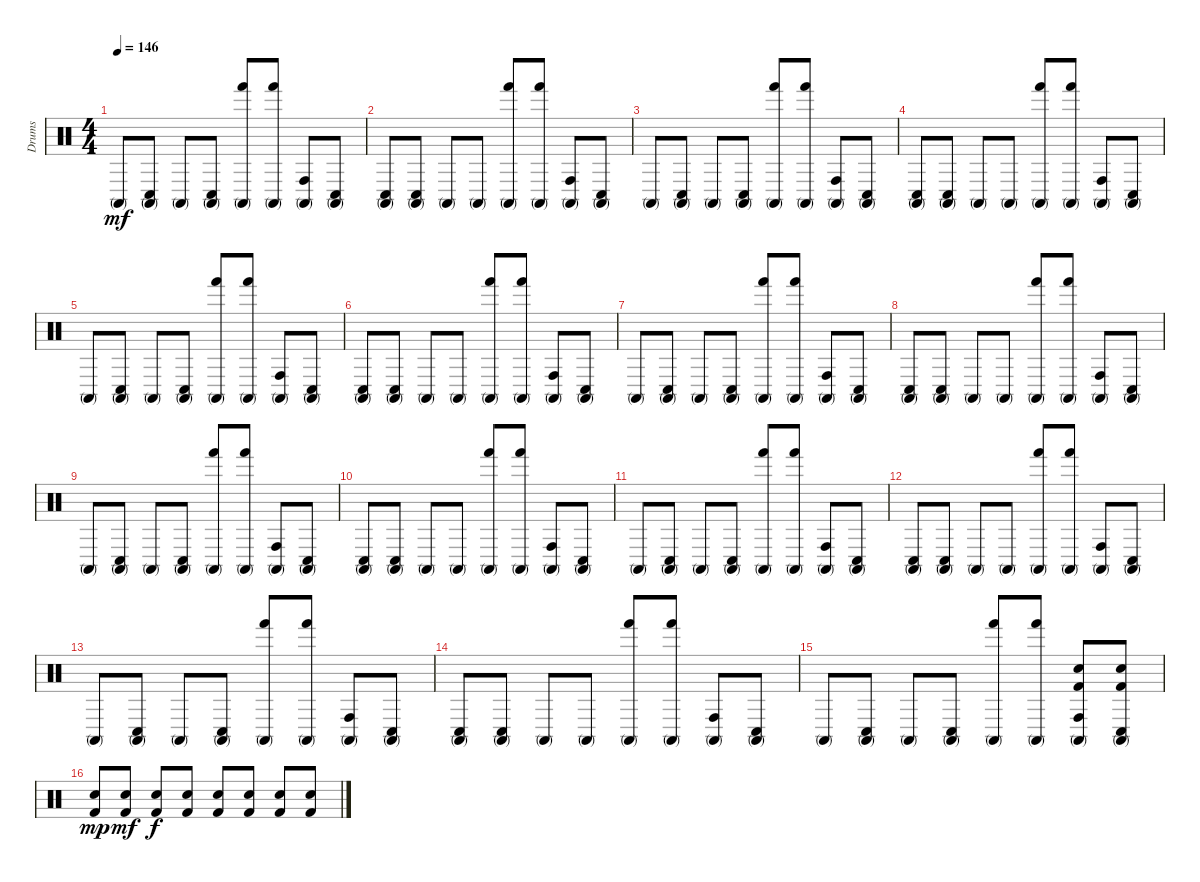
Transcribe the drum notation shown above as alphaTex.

\track ("Drums" "Drums") {instrument percussion}
\staff {score}
\articulation defaults
\ts (4 4)
\tempo 146
\clef neutral
\ks c "Conga high (mute)".8{dy mf}
("Conga low (hit)" "Conga high (mute)").8 "Conga high (mute)".8 ("Conga low (hit)" "Conga high (mute)").8 ("Hand (hit)" "Conga high (mute)").8 ("Hand (hit)" "Conga high (mute)").8 ("Conga high (hit)" "Conga high (mute)").8 ("Conga low (hit)" "Conga high (mute)").8 |
("Conga low (hit)" "Conga high (mute)").8 ("Conga low (hit)" "Conga high (mute)").8 "Conga high (mute)".8 "Conga high (mute)".8 ("Hand (hit)" "Conga high (mute)").8 ("Hand (hit)" "Conga high (mute)").8 ("Conga high (hit)" "Conga high (mute)").8 ("Conga low (hit)" "Conga high (mute)").8 |
"Conga high (mute)".8 ("Conga low (hit)" "Conga high (mute)").8 "Conga high (mute)".8 ("Conga low (hit)" "Conga high (mute)").8 ("Hand (hit)" "Conga high (mute)").8 ("Hand (hit)" "Conga high (mute)").8 ("Conga high (hit)" "Conga high (mute)").8 ("Conga low (hit)" "Conga high (mute)").8 |
("Conga low (hit)" "Conga high (mute)").8 ("Conga low (hit)" "Conga high (mute)").8 "Conga high (mute)".8 "Conga high (mute)".8 ("Hand (hit)" "Conga high (mute)").8 ("Hand (hit)" "Conga high (mute)").8 ("Conga high (hit)" "Conga high (mute)").8 ("Conga low (hit)" "Conga high (mute)").8 |
"Conga high (mute)".8 ("Conga low (hit)" "Conga high (mute)").8 "Conga high (mute)".8 ("Conga low (hit)" "Conga high (mute)").8 ("Hand (hit)" "Conga high (mute)").8 ("Hand (hit)" "Conga high (mute)").8 ("Conga high (hit)" "Conga high (mute)").8 ("Conga low (hit)" "Conga high (mute)").8 |
("Conga low (hit)" "Conga high (mute)").8 ("Conga low (hit)" "Conga high (mute)").8 "Conga high (mute)".8 "Conga high (mute)".8 ("Hand (hit)" "Conga high (mute)").8 ("Hand (hit)" "Conga high (mute)").8 ("Conga high (hit)" "Conga high (mute)").8 ("Conga low (hit)" "Conga high (mute)").8 |
"Conga high (mute)".8 ("Conga low (hit)" "Conga high (mute)").8 "Conga high (mute)".8 ("Conga low (hit)" "Conga high (mute)").8 ("Hand (hit)" "Conga high (mute)").8 ("Hand (hit)" "Conga high (mute)").8 ("Conga high (hit)" "Conga high (mute)").8 ("Conga low (hit)" "Conga high (mute)").8 |
("Conga low (hit)" "Conga high (mute)").8 ("Conga low (hit)" "Conga high (mute)").8 "Conga high (mute)".8 "Conga high (mute)".8 ("Hand (hit)" "Conga high (mute)").8 ("Hand (hit)" "Conga high (mute)").8 ("Conga high (hit)" "Conga high (mute)").8 ("Conga low (hit)" "Conga high (mute)").8 |
"Conga high (mute)".8 ("Conga low (hit)" "Conga high (mute)").8 "Conga high (mute)".8 ("Conga low (hit)" "Conga high (mute)").8 ("Hand (hit)" "Conga high (mute)").8 ("Hand (hit)" "Conga high (mute)").8 ("Conga high (hit)" "Conga high (mute)").8 ("Conga low (hit)" "Conga high (mute)").8 |
("Conga low (hit)" "Conga high (mute)").8 ("Conga low (hit)" "Conga high (mute)").8 "Conga high (mute)".8 "Conga high (mute)".8 ("Hand (hit)" "Conga high (mute)").8 ("Hand (hit)" "Conga high (mute)").8 ("Conga high (hit)" "Conga high (mute)").8 ("Conga low (hit)" "Conga high (mute)").8 |
"Conga high (mute)".8 ("Conga low (hit)" "Conga high (mute)").8 "Conga high (mute)".8 ("Conga low (hit)" "Conga high (mute)").8 ("Hand (hit)" "Conga high (mute)").8 ("Hand (hit)" "Conga high (mute)").8 ("Conga high (hit)" "Conga high (mute)").8 ("Conga low (hit)" "Conga high (mute)").8 |
("Conga low (hit)" "Conga high (mute)").8 ("Conga low (hit)" "Conga high (mute)").8 "Conga high (mute)".8 "Conga high (mute)".8 ("Hand (hit)" "Conga high (mute)").8 ("Hand (hit)" "Conga high (mute)").8 ("Conga high (hit)" "Conga high (mute)").8 ("Conga low (hit)" "Conga high (mute)").8 |
"Conga high (mute)".8 ("Conga low (hit)" "Conga high (mute)").8 "Conga high (mute)".8 ("Conga low (hit)" "Conga high (mute)").8 ("Hand (hit)" "Conga high (mute)").8 ("Hand (hit)" "Conga high (mute)").8 ("Conga high (hit)" "Conga high (mute)").8 ("Conga low (hit)" "Conga high (mute)").8 |
("Conga low (hit)" "Conga high (mute)").8 ("Conga low (hit)" "Conga high (mute)").8 "Conga high (mute)".8 "Conga high (mute)".8 ("Hand (hit)" "Conga high (mute)").8 ("Hand (hit)" "Conga high (mute)").8 ("Conga high (hit)" "Conga high (mute)").8 ("Conga low (hit)" "Conga high (mute)").8 |
"Conga high (mute)".8 ("Conga low (hit)" "Conga high (mute)").8 "Conga high (mute)".8 ("Conga low (hit)" "Conga high (mute)").8 ("Hand (hit)" "Conga high (mute)").8 ("Hand (hit)" "Conga high (mute)").8 ("Conga high (hit)" "Conga high (mute)" "Snare (hit) 2" "Kick (hit) 2").8 ("Conga low (hit)" "Conga high (mute)" "Snare (hit) 2" "Kick (hit) 2").8 |
("Snare (hit) 2" "Kick (hit) 2").8{dy mp} ("Snare (hit) 2" "Kick (hit) 2").8{dy mf} ("Snare (hit) 2" "Kick (hit) 2").8{dy f} ("Snare (hit) 2" "Kick (hit) 2").8 ("Snare (hit) 2" "Kick (hit) 2").8 ("Snare (hit) 2" "Kick (hit) 2").8 ("Snare (hit) 2" "Kick (hit) 2").8 ("Snare (hit) 2" "Kick (hit) 2").8
